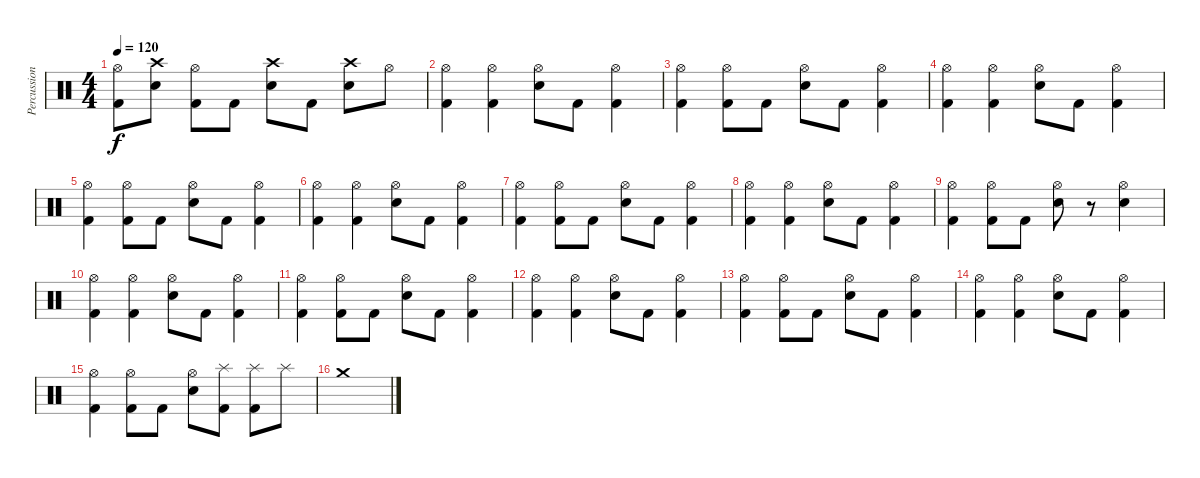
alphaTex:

\track ("Percussion" "Percussion") {instrument percussion}
\staff {score}
\articulation defaults
\ts (4 4)
\tempo 120
\clef neutral
\ks c
("Hi-Hat (open)" "Kick (hit) 2").8{dy f} ("Crash high (hit)" "Electric Snare (hit)").8 ("Hi-Hat (open)" "Kick (hit) 2").8 "Kick (hit) 2".8 ("Crash high (hit)" "Electric Snare (hit)").8 "Kick (hit) 2".8 ("Crash high (hit)" "Electric Snare (hit)").8 "Hi-Hat (open)".8 |
("Hi-Hat (open)" "Kick (hit) 2").4 ("Hi-Hat (open)" "Kick (hit) 2").4 ("Hi-Hat (open)" "Electric Snare (hit)").8 "Kick (hit) 2".8 ("Hi-Hat (open)" "Kick (hit) 2").4 |
("Hi-Hat (open)" "Kick (hit) 2").4 ("Hi-Hat (open)" "Kick (hit) 2").8 "Kick (hit) 2".8 ("Hi-Hat (open)" "Electric Snare (hit)").8 "Kick (hit) 2".8 ("Hi-Hat (open)" "Kick (hit) 2").4 |
("Hi-Hat (open)" "Kick (hit) 2").4 ("Hi-Hat (open)" "Kick (hit) 2").4 ("Hi-Hat (open)" "Electric Snare (hit)").8 "Kick (hit) 2".8 ("Hi-Hat (open)" "Kick (hit) 2").4 |
("Hi-Hat (open)" "Kick (hit) 2").4 ("Hi-Hat (open)" "Kick (hit) 2").8 "Kick (hit) 2".8 ("Hi-Hat (open)" "Electric Snare (hit)").8 "Kick (hit) 2".8 ("Hi-Hat (open)" "Kick (hit) 2").4 |
("Hi-Hat (open)" "Kick (hit) 2").4 ("Hi-Hat (open)" "Kick (hit) 2").4 ("Hi-Hat (open)" "Electric Snare (hit)").8 "Kick (hit) 2".8 ("Hi-Hat (open)" "Kick (hit) 2").4 |
("Hi-Hat (open)" "Kick (hit) 2").4 ("Hi-Hat (open)" "Kick (hit) 2").8 "Kick (hit) 2".8 ("Hi-Hat (open)" "Electric Snare (hit)").8 "Kick (hit) 2".8 ("Hi-Hat (open)" "Kick (hit) 2").4 |
("Hi-Hat (open)" "Kick (hit) 2").4 ("Hi-Hat (open)" "Kick (hit) 2").4 ("Hi-Hat (open)" "Electric Snare (hit)").8 "Kick (hit) 2".8 ("Hi-Hat (open)" "Kick (hit) 2").4 |
("Hi-Hat (open)" "Kick (hit) 2").4 ("Hi-Hat (open)" "Kick (hit) 2").8 "Kick (hit) 2".8 ("Hi-Hat (open)" "Electric Snare (hit)").8 r.8 ("Hi-Hat (open)" "Electric Snare (hit)").4 |
("Hi-Hat (open)" "Kick (hit) 2").4 ("Hi-Hat (open)" "Kick (hit) 2").4 ("Hi-Hat (open)" "Electric Snare (hit)").8 "Kick (hit) 2".8 ("Hi-Hat (open)" "Kick (hit) 2").4 |
("Hi-Hat (open)" "Kick (hit) 2").4 ("Hi-Hat (open)" "Kick (hit) 2").8 "Kick (hit) 2".8 ("Hi-Hat (open)" "Electric Snare (hit)").8 "Kick (hit) 2".8 ("Hi-Hat (open)" "Kick (hit) 2").4 |
("Hi-Hat (open)" "Kick (hit) 2").4 ("Hi-Hat (open)" "Kick (hit) 2").4 ("Hi-Hat (open)" "Electric Snare (hit)").8 "Kick (hit) 2".8 ("Hi-Hat (open)" "Kick (hit) 2").4 |
("Hi-Hat (open)" "Kick (hit) 2").4 ("Hi-Hat (open)" "Kick (hit) 2").8 "Kick (hit) 2".8 ("Hi-Hat (open)" "Electric Snare (hit)").8 "Kick (hit) 2".8 ("Hi-Hat (open)" "Kick (hit) 2").4 |
("Hi-Hat (open)" "Kick (hit) 2").4 ("Hi-Hat (open)" "Kick (hit) 2").4 ("Hi-Hat (open)" "Electric Snare (hit)").8 "Kick (hit) 2".8 ("Hi-Hat (open)" "Kick (hit) 2").4 |
("Hi-Hat (open)" "Kick (hit) 2").4 ("Hi-Hat (open)" "Kick (hit) 2").8 "Kick (hit) 2".8 ("Hi-Hat (open)" "Electric Snare (hit)").8 ("Splash (hit)" "Kick (hit) 2").8 ("Splash (hit)" "Kick (hit) 2").8 "Splash (hit)".8 |
"Crash medium (hit)".1
